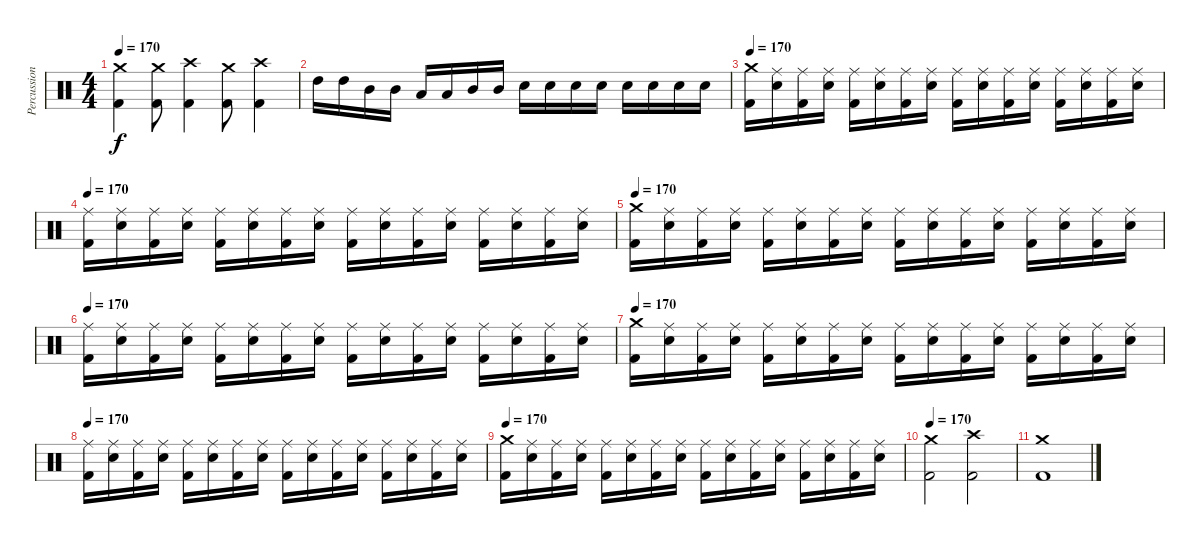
\track ("Percussion" "Percussion") {instrument percussion}
\staff {score}
\articulation defaults
\ts (4 4)
\tempo 170
\clef neutral
\ks c
("Crash medium (hit)" "Kick (hit) 2").4{dy f} ("Crash medium (hit)" "Kick (hit) 2").8 ("Crash high (hit)" "Kick (hit) 2").4 ("Crash medium (hit)" "Kick (hit) 2").8 ("Crash high (hit)" "Kick (hit) 2").4 |
"High Tom (hit)".16 "High Tom (hit)".16 "Mid Tom (hit)".16 "Mid Tom (hit)".16 "Low Tom (hit)".16 "Low Tom (hit)".16 "Mid Tom (hit)".16 "Mid Tom (hit)".16 "Electric Snare (hit)".16 "Electric Snare (hit)".16 "Electric Snare (hit)".16 "Electric Snare (hit)".16 "Electric Snare (hit)".16 "Electric Snare (hit)".16 "Electric Snare (hit)".16 "Electric Snare (hit)".16 |
\tempo 170
("Crash medium (hit)" "Kick (hit) 2").16 ("Ride (middle)" "Electric Snare (hit)").16 ("Ride (middle)" "Kick (hit) 2").16 ("Ride (middle)" "Electric Snare (hit)").16 ("Ride (middle)" "Kick (hit) 2").16 ("Ride (middle)" "Electric Snare (hit)").16 ("Ride (middle)" "Kick (hit) 2").16 ("Ride (middle)" "Electric Snare (hit)").16 ("Ride (middle)" "Kick (hit) 2").16 ("Ride (middle)" "Electric Snare (hit)").16 ("Ride (middle)" "Kick (hit) 2").16 ("Ride (middle)" "Electric Snare (hit)").16 ("Ride (middle)" "Kick (hit) 2").16 ("Ride (middle)" "Electric Snare (hit)").16 ("Ride (middle)" "Kick (hit) 2").16 ("Ride (middle)" "Electric Snare (hit)").16 |
\tempo 170
("Ride (middle)" "Kick (hit) 2").16 ("Ride (middle)" "Electric Snare (hit)").16 ("Ride (middle)" "Kick (hit) 2").16 ("Ride (middle)" "Electric Snare (hit)").16 ("Ride (middle)" "Kick (hit) 2").16 ("Ride (middle)" "Electric Snare (hit)").16 ("Ride (middle)" "Kick (hit) 2").16 ("Ride (middle)" "Electric Snare (hit)").16 ("Ride (middle)" "Kick (hit) 2").16 ("Ride (middle)" "Electric Snare (hit)").16 ("Ride (middle)" "Kick (hit) 2").16 ("Ride (middle)" "Electric Snare (hit)").16 ("Ride (middle)" "Kick (hit) 2").16 ("Ride (middle)" "Electric Snare (hit)").16 ("Ride (middle)" "Kick (hit) 2").16 ("Ride (middle)" "Electric Snare (hit)").16 |
\tempo 170
("Crash medium (hit)" "Kick (hit) 2").16 ("Ride (middle)" "Electric Snare (hit)").16 ("Ride (middle)" "Kick (hit) 2").16 ("Ride (middle)" "Electric Snare (hit)").16 ("Ride (middle)" "Kick (hit) 2").16 ("Ride (middle)" "Electric Snare (hit)").16 ("Ride (middle)" "Kick (hit) 2").16 ("Ride (middle)" "Electric Snare (hit)").16 ("Ride (middle)" "Kick (hit) 2").16 ("Ride (middle)" "Electric Snare (hit)").16 ("Ride (middle)" "Kick (hit) 2").16 ("Ride (middle)" "Electric Snare (hit)").16 ("Ride (middle)" "Kick (hit) 2").16 ("Ride (middle)" "Electric Snare (hit)").16 ("Ride (middle)" "Kick (hit) 2").16 ("Ride (middle)" "Electric Snare (hit)").16 |
\tempo 170
("Ride (middle)" "Kick (hit) 2").16 ("Ride (middle)" "Electric Snare (hit)").16 ("Ride (middle)" "Kick (hit) 2").16 ("Ride (middle)" "Electric Snare (hit)").16 ("Ride (middle)" "Kick (hit) 2").16 ("Ride (middle)" "Electric Snare (hit)").16 ("Ride (middle)" "Kick (hit) 2").16 ("Ride (middle)" "Electric Snare (hit)").16 ("Ride (middle)" "Kick (hit) 2").16 ("Ride (middle)" "Electric Snare (hit)").16 ("Ride (middle)" "Kick (hit) 2").16 ("Ride (middle)" "Electric Snare (hit)").16 ("Ride (middle)" "Kick (hit) 2").16 ("Ride (middle)" "Electric Snare (hit)").16 ("Ride (middle)" "Kick (hit) 2").16 ("Ride (middle)" "Electric Snare (hit)").16 |
\tempo 170
("Crash medium (hit)" "Kick (hit) 2").16 ("Ride (middle)" "Electric Snare (hit)").16 ("Ride (middle)" "Kick (hit) 2").16 ("Ride (middle)" "Electric Snare (hit)").16 ("Ride (middle)" "Kick (hit) 2").16 ("Ride (middle)" "Electric Snare (hit)").16 ("Ride (middle)" "Kick (hit) 2").16 ("Ride (middle)" "Electric Snare (hit)").16 ("Ride (middle)" "Kick (hit) 2").16 ("Ride (middle)" "Electric Snare (hit)").16 ("Ride (middle)" "Kick (hit) 2").16 ("Ride (middle)" "Electric Snare (hit)").16 ("Ride (middle)" "Kick (hit) 2").16 ("Ride (middle)" "Electric Snare (hit)").16 ("Ride (middle)" "Kick (hit) 2").16 ("Ride (middle)" "Electric Snare (hit)").16 |
\tempo 170
("Ride (middle)" "Kick (hit) 2").16 ("Ride (middle)" "Electric Snare (hit)").16 ("Ride (middle)" "Kick (hit) 2").16 ("Ride (middle)" "Electric Snare (hit)").16 ("Ride (middle)" "Kick (hit) 2").16 ("Ride (middle)" "Electric Snare (hit)").16 ("Ride (middle)" "Kick (hit) 2").16 ("Ride (middle)" "Electric Snare (hit)").16 ("Ride (middle)" "Kick (hit) 2").16 ("Ride (middle)" "Electric Snare (hit)").16 ("Ride (middle)" "Kick (hit) 2").16 ("Ride (middle)" "Electric Snare (hit)").16 ("Ride (middle)" "Kick (hit) 2").16 ("Ride (middle)" "Electric Snare (hit)").16 ("Ride (middle)" "Kick (hit) 2").16 ("Ride (middle)" "Electric Snare (hit)").16 |
\tempo 170
("Crash medium (hit)" "Kick (hit) 2").16 ("Ride (middle)" "Electric Snare (hit)").16 ("Ride (middle)" "Kick (hit) 2").16 ("Ride (middle)" "Electric Snare (hit)").16 ("Ride (middle)" "Kick (hit) 2").16 ("Ride (middle)" "Electric Snare (hit)").16 ("Ride (middle)" "Kick (hit) 2").16 ("Ride (middle)" "Electric Snare (hit)").16 ("Ride (middle)" "Kick (hit) 2").16 ("Ride (middle)" "Electric Snare (hit)").16 ("Ride (middle)" "Kick (hit) 2").16 ("Ride (middle)" "Electric Snare (hit)").16 ("Ride (middle)" "Kick (hit) 2").16 ("Ride (middle)" "Electric Snare (hit)").16 ("Ride (middle)" "Kick (hit) 2").16 ("Ride (middle)" "Electric Snare (hit)").16 |
\tempo 170
("Crash medium (hit)" "Kick (hit) 2").2 ("Crash high (hit)" "Kick (hit) 2").2 |
("Crash medium (hit)" "Kick (hit) 2").1
